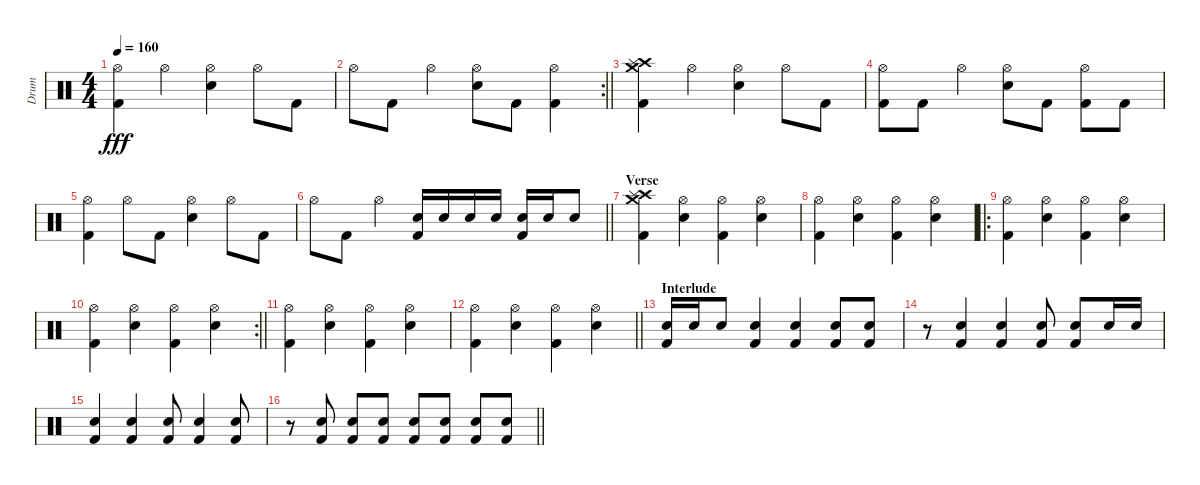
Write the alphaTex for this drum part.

\track ("Drum" "Drum") {instrument percussion}
\staff {score}
\articulation defaults
\ts (4 4)
\tempo 160
\clef neutral
\ks c
("Hi-Hat (open)" "Kick (hit) 2").4{dy fff} "Hi-Hat (open)".4 ("Hi-Hat (open)" "Electric Snare (hit)").4 "Hi-Hat (open)".8 "Kick (hit) 2".8 |
\rc 2
\barLineRight lightlight "Hi-Hat (open)".8 "Kick (hit) 2".8 "Hi-Hat (open)".4
("Hi-Hat (open)" "Electric Snare (hit)").8 "Kick (hit) 2".8 ("Hi-Hat (open)" "Kick (hit) 2").4 |
("Crash high (hit)" "Crash medium (hit)" "Splash (hit)" "Kick (hit) 2").4 "Hi-Hat (open)".4 ("Hi-Hat (open)" "Electric Snare (hit)").4 "Hi-Hat (open)".8 "Kick (hit) 2".8 |
("Hi-Hat (open)" "Kick (hit) 2").8 "Kick (hit) 2".8 "Hi-Hat (open)".4 ("Hi-Hat (open)" "Electric Snare (hit)").8 "Kick (hit) 2".8 ("Hi-Hat (open)" "Kick (hit) 2").8 "Kick (hit) 2".8 |
("Hi-Hat (open)" "Kick (hit) 2").4 "Hi-Hat (open)".8 "Kick (hit) 2".8 ("Hi-Hat (open)" "Electric Snare (hit)").4 "Hi-Hat (open)".8 "Kick (hit) 2".8 |
\barLineRight lightlight "Hi-Hat (open)".8 "Kick (hit) 2".8 "Hi-Hat (open)".4
("Electric Snare (hit)" "Kick (hit) 2").16 "Electric Snare (hit)".16 "Electric Snare (hit)".16 "Electric Snare (hit)".16 ("Electric Snare (hit)" "Kick (hit) 2").16 "Electric Snare (hit)".16 "Electric Snare (hit)".8 |
\section ("" "Verse")
("Crash high (hit)" "Crash medium (hit)" "Splash (hit)" "Kick (hit) 2").4 ("Hi-Hat (open)" "Electric Snare (hit)").4 ("Hi-Hat (open)" "Kick (hit) 2").4 ("Hi-Hat (open)" "Electric Snare (hit)").4 |
("Hi-Hat (open)" "Kick (hit) 2").4 ("Hi-Hat (open)" "Electric Snare (hit)").4 ("Hi-Hat (open)" "Kick (hit) 2").4 ("Hi-Hat (open)" "Electric Snare (hit)").4 |
\ro
("Hi-Hat (open)" "Kick (hit) 2").4 ("Hi-Hat (open)" "Electric Snare (hit)").4 ("Hi-Hat (open)" "Kick (hit) 2").4 ("Hi-Hat (open)" "Electric Snare (hit)").4 |
\rc 2
\barLineRight lightlight
("Hi-Hat (open)" "Kick (hit) 2").4 ("Hi-Hat (open)" "Electric Snare (hit)").4 ("Hi-Hat (open)" "Kick (hit) 2").4 ("Hi-Hat (open)" "Electric Snare (hit)").4 |
("Hi-Hat (open)" "Kick (hit) 2").4 ("Hi-Hat (open)" "Electric Snare (hit)").4 ("Hi-Hat (open)" "Kick (hit) 2").4 ("Hi-Hat (open)" "Electric Snare (hit)").4 |
\barLineRight lightlight
("Hi-Hat (open)" "Kick (hit) 2").4 ("Hi-Hat (open)" "Electric Snare (hit)").4 ("Hi-Hat (open)" "Kick (hit) 2").4 ("Hi-Hat (open)" "Electric Snare (hit)").4 |
\section ("" "Interlude")
("Electric Snare (hit)" "Kick (hit) 2").16 "Electric Snare (hit)".16 "Electric Snare (hit)".8 ("Electric Snare (hit)" "Kick (hit) 2").4 ("Electric Snare (hit)" "Kick (hit) 2").4 ("Electric Snare (hit)" "Kick (hit) 2").8 ("Electric Snare (hit)" "Kick (hit) 2").8 |
r.8 ("Electric Snare (hit)" "Kick (hit) 2").4 ("Electric Snare (hit)" "Kick (hit) 2").4 ("Electric Snare (hit)" "Kick (hit) 2").8 ("Electric Snare (hit)" "Kick (hit) 2").8 "Electric Snare (hit)".16 "Electric Snare (hit)".16 |
("Electric Snare (hit)" "Kick (hit) 2").4 ("Electric Snare (hit)" "Kick (hit) 2").4 ("Electric Snare (hit)" "Kick (hit) 2").8 ("Electric Snare (hit)" "Kick (hit) 2").4 ("Electric Snare (hit)" "Kick (hit) 2").8 |
\barLineRight lightlight
r.8 ("Electric Snare (hit)" "Kick (hit) 2").8 ("Electric Snare (hit)" "Kick (hit) 2").8 ("Electric Snare (hit)" "Kick (hit) 2").8 ("Electric Snare (hit)" "Kick (hit) 2").8 ("Electric Snare (hit)" "Kick (hit) 2").8 ("Electric Snare (hit)" "Kick (hit) 2").8 ("Electric Snare (hit)" "Kick (hit) 2").8
